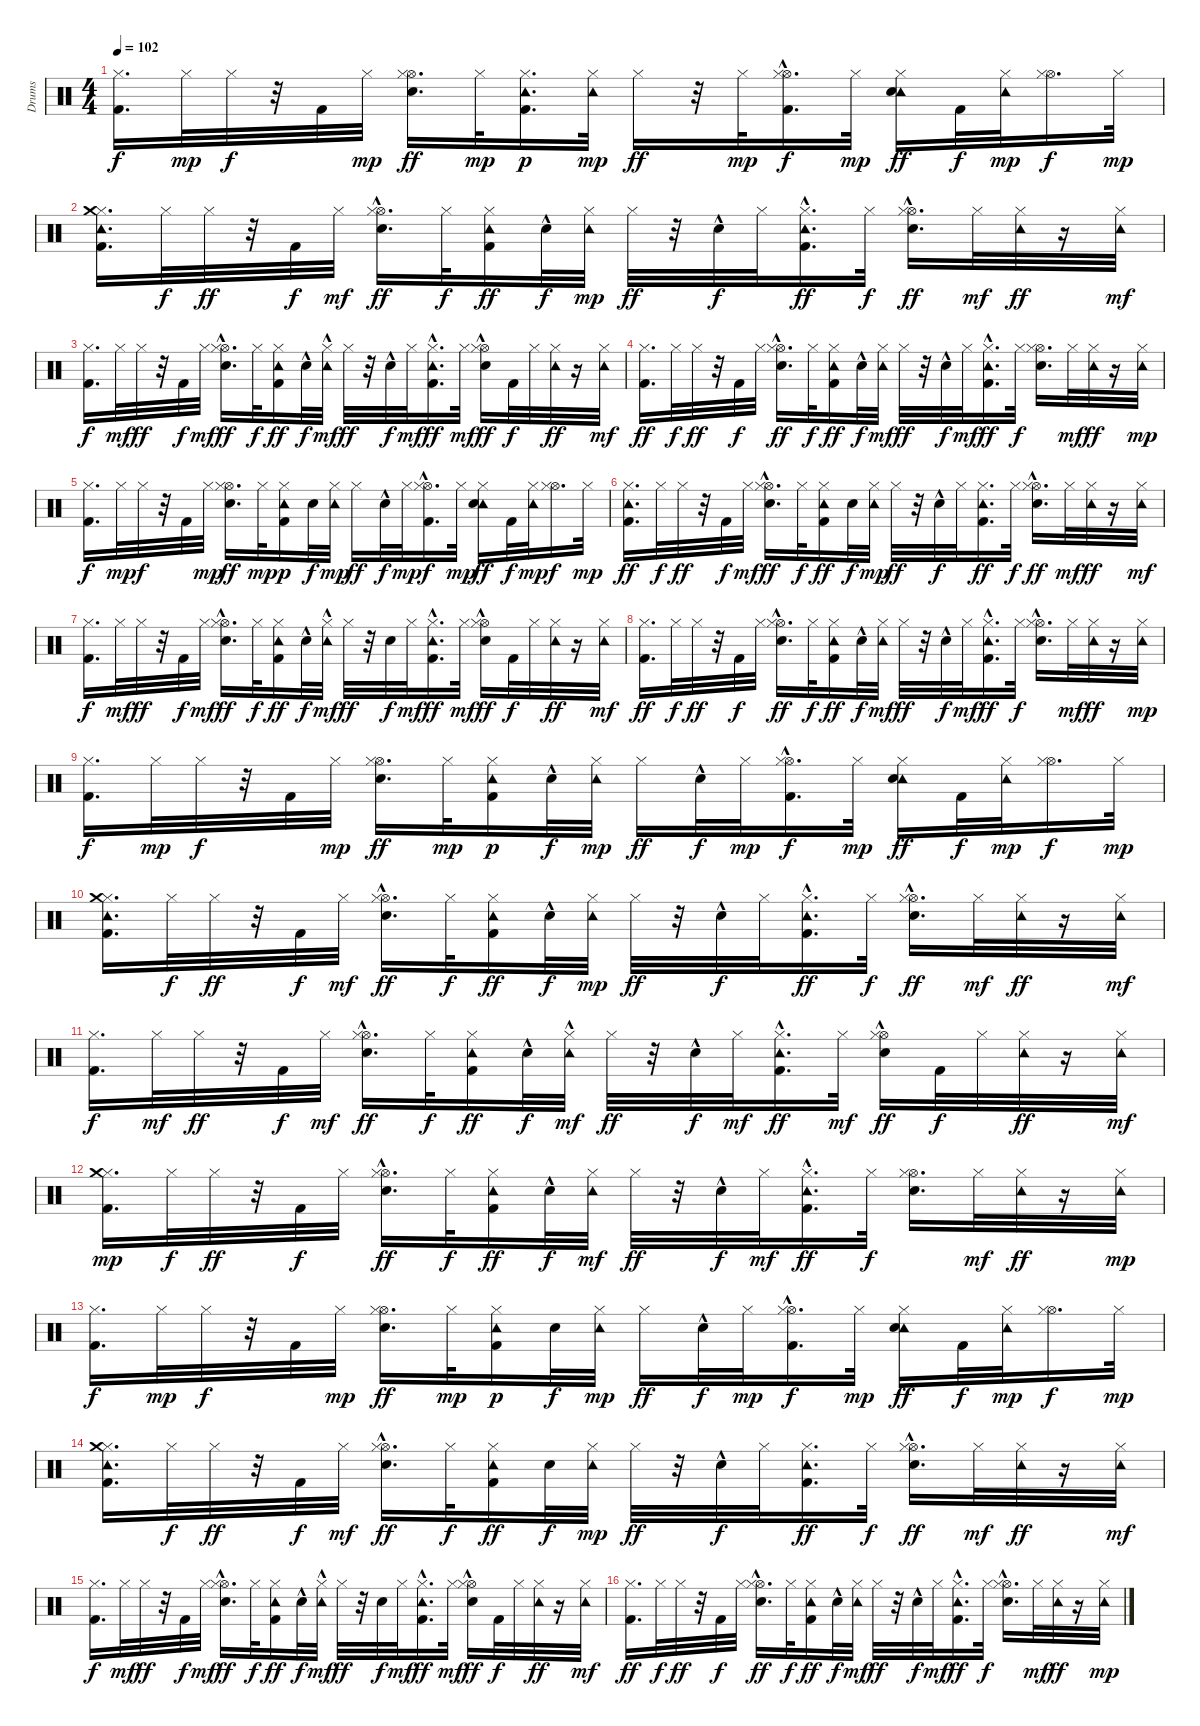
\track ("Drums" "Drums") {instrument percussion}
\staff {score}
\articulation defaults
\ts (4 4)
\tempo 102
\clef neutral
\ks c
("Kick (hit) 2" "Hi-Hat (closed)").16{d dy f} "Hi-Hat (closed)".32{dy mp} "Hi-Hat (closed)".32{dy f} r.32 "Kick (hit) 2".32 "Hi-Hat (closed)".32{dy mp} ("Hi-Hat (open)" "Hi-Hat (closed)" "Electric Snare (hit)").16{d dy ff} "Hi-Hat (closed)".32{dy mp} ("Kick (hit) 2" "Tambourine (hit)" "Hi-Hat (closed)").16{d dy p} ("Tambourine (hit)" "Hi-Hat (closed)").32{dy mp} "Hi-Hat (closed)".16{dy ff} r.32 "Hi-Hat (closed)".32{dy mp} ("Kick (hit) 2"{hac} "Hi-Hat (open)"{hac} "Hi-Hat (closed)").16{d dy f} "Hi-Hat (closed)".32{dy mp} ("Tambourine (hit)" "Hi-Hat (closed)" "Electric Snare (hit)").16{dy ff} "Kick (hit) 2".32{dy f} ("Tambourine (hit)" "Hi-Hat (closed)").32{dy mp} ("Hi-Hat (open)" "Hi-Hat (closed)").16{d dy f} "Hi-Hat (closed)".32{dy mp} |
("Kick (hit) 2" "Tambourine (hit)" "Hi-Hat (closed)" "Crash medium (hit)").16{d} "Hi-Hat (closed)".32{dy f} "Hi-Hat (closed)".32{dy ff} r.32 "Kick (hit) 2".32{dy f} "Hi-Hat (closed)".32{dy mf} ("Hi-Hat (open)"{hac} "Hi-Hat (closed)" "Electric Snare (hit)").16{d dy ff} "Hi-Hat (closed)".32{dy f} ("Kick (hit) 2" "Tambourine (hit)" "Hi-Hat (closed)").16{dy ff} "Snare (hit) 2"{hac}.32{dy f} ("Tambourine (hit)" "Hi-Hat (closed)").32{dy mp} "Hi-Hat (closed)".32{dy ff} r.32 "Snare (hit) 2"{hac}.32{dy f} "Hi-Hat (closed)".32 ("Kick (hit) 2"{hac} "Tambourine (hit)" "Hi-Hat (closed)").16{d dy ff} "Hi-Hat (closed)".32{dy f} ("Hi-Hat (open)"{hac} "Hi-Hat (closed)" "Electric Snare (hit)"{hac}).16{d dy ff} "Hi-Hat (closed)".32{dy mf} ("Tambourine (hit)" "Hi-Hat (closed)").32{dy ff} r.16 ("Tambourine (hit)" "Hi-Hat (closed)").32{dy mf} |
("Kick (hit) 2" "Hi-Hat (closed)").16{d dy f} "Hi-Hat (closed)".32{dy mf} "Hi-Hat (closed)".32{dy ff} r.32 "Kick (hit) 2".32{dy f} "Hi-Hat (closed)".32{dy mf} ("Hi-Hat (open)"{hac} "Hi-Hat (closed)" "Electric Snare (hit)").16{d dy ff} "Hi-Hat (closed)".32{dy f} ("Kick (hit) 2" "Tambourine (hit)" "Hi-Hat (closed)").16{dy ff} "Snare (hit) 2"{hac}.32{dy f} ("Tambourine (hit)"{hac} "Hi-Hat (closed)").32{dy mf} "Hi-Hat (closed)".32{dy ff} r.32 "Snare (hit) 2"{hac}.32{dy f} "Hi-Hat (closed)".32{dy mf} ("Kick (hit) 2"{hac} "Tambourine (hit)" "Hi-Hat (closed)").16{d dy ff} "Hi-Hat (closed)".32{dy mf} ("Hi-Hat (open)"{hac} "Hi-Hat (closed)" "Electric Snare (hit)").16{dy ff} "Kick (hit) 2".32{dy f} "Hi-Hat (closed)".32 ("Tambourine (hit)" "Hi-Hat (closed)").32{dy ff} r.16 ("Tambourine (hit)" "Hi-Hat (closed)").32{dy mf} |
("Kick (hit) 2" "Hi-Hat (closed)").16{d dy ff} "Hi-Hat (closed)".32{dy f} "Hi-Hat (closed)".32{dy ff} r.32 "Kick (hit) 2".32{dy f} "Hi-Hat (closed)".32 ("Hi-Hat (open)"{hac} "Hi-Hat (closed)" "Electric Snare (hit)").16{d dy ff} "Hi-Hat (closed)".32{dy f} ("Kick (hit) 2" "Tambourine (hit)" "Hi-Hat (closed)").16{dy ff} "Snare (hit) 2"{hac}.32{dy f} ("Tambourine (hit)" "Hi-Hat (closed)").32{dy mf} "Hi-Hat (closed)".32{dy ff} r.32 "Snare (hit) 2"{hac}.32{dy f} "Hi-Hat (closed)".32{dy mf} ("Kick (hit) 2"{hac} "Tambourine (hit)" "Hi-Hat (closed)").16{d dy ff} "Hi-Hat (closed)".32{dy f} ("Hi-Hat (open)" "Hi-Hat (closed)" "Electric Snare (hit)").16{d} "Hi-Hat (closed)".32{dy mf} ("Tambourine (hit)" "Hi-Hat (closed)").32{dy ff} r.16 ("Tambourine (hit)" "Hi-Hat (closed)").32{dy mp} |
("Kick (hit) 2" "Hi-Hat (closed)").16{d dy f} "Hi-Hat (closed)".32{dy mp} "Hi-Hat (closed)".32{dy f} r.32 "Kick (hit) 2".32 "Hi-Hat (closed)".32{dy mp} ("Hi-Hat (open)" "Hi-Hat (closed)" "Electric Snare (hit)").16{d dy ff} "Hi-Hat (closed)".32{dy mp} ("Kick (hit) 2" "Tambourine (hit)" "Hi-Hat (closed)").16{dy p} "Snare (hit) 2".32{dy f} ("Tambourine (hit)" "Hi-Hat (closed)").32{dy mp} "Hi-Hat (closed)".16{dy ff} "Snare (hit) 2"{hac}.32{dy f} "Hi-Hat (closed)".32{dy mp} ("Kick (hit) 2"{hac} "Hi-Hat (open)"{hac} "Hi-Hat (closed)").16{d dy f} "Hi-Hat (closed)".32{dy mp} ("Tambourine (hit)" "Hi-Hat (closed)" "Electric Snare (hit)").16{dy ff} "Kick (hit) 2".32{dy f} ("Tambourine (hit)" "Hi-Hat (closed)").32{dy mp} ("Hi-Hat (open)" "Hi-Hat (closed)").16{d dy f} "Hi-Hat (closed)".32{dy mp} |
("Kick (hit) 2" "Tambourine (hit)" "Hi-Hat (closed)").16{d dy ff} "Hi-Hat (closed)".32{dy f} "Hi-Hat (closed)".32{dy ff} r.32 "Kick (hit) 2".32{dy f} "Hi-Hat (closed)".32{dy mf} ("Hi-Hat (open)"{hac} "Electric Snare (hit)" "Hi-Hat (closed)").16{d dy ff} "Hi-Hat (closed)".32{dy f} ("Kick (hit) 2" "Tambourine (hit)" "Hi-Hat (closed)").16{dy ff} "Snare (hit) 2".32{dy f} ("Tambourine (hit)" "Hi-Hat (closed)").32{dy mp} "Hi-Hat (closed)".32{dy ff} r.32 "Snare (hit) 2"{hac}.32{dy f} "Hi-Hat (closed)".32 ("Kick (hit) 2" "Tambourine (hit)" "Hi-Hat (closed)").16{d dy ff} "Hi-Hat (closed)".32{dy f} ("Hi-Hat (open)"{hac} "Electric Snare (hit)"{hac} "Hi-Hat (closed)").16{d dy ff} "Hi-Hat (closed)".32{dy mf} ("Tambourine (hit)" "Hi-Hat (closed)").32{dy ff} r.16 ("Tambourine (hit)" "Hi-Hat (closed)").32{dy mf} |
("Kick (hit) 2" "Hi-Hat (closed)").16{d dy f} "Hi-Hat (closed)".32{dy mf} "Hi-Hat (closed)".32{dy ff} r.32 "Kick (hit) 2".32{dy f} "Hi-Hat (closed)".32{dy mf} ("Hi-Hat (open)"{hac} "Electric Snare (hit)" "Hi-Hat (closed)").16{d dy ff} "Hi-Hat (closed)".32{dy f} ("Kick (hit) 2" "Tambourine (hit)" "Hi-Hat (closed)").16{dy ff} "Snare (hit) 2"{hac}.32{dy f} ("Tambourine (hit)"{hac} "Hi-Hat (closed)").32{dy mf} "Hi-Hat (closed)".32{dy ff} r.32 "Snare (hit) 2".32{dy f} "Hi-Hat (closed)".32{dy mf} ("Kick (hit) 2"{hac} "Tambourine (hit)" "Hi-Hat (closed)").16{d dy ff} "Hi-Hat (closed)".32{dy mf} ("Hi-Hat (open)"{hac} "Electric Snare (hit)" "Hi-Hat (closed)").16{dy ff} "Kick (hit) 2".32{dy f} "Hi-Hat (closed)".32 ("Tambourine (hit)" "Hi-Hat (closed)").32{dy ff} r.16 ("Tambourine (hit)" "Hi-Hat (closed)").32{dy mf} |
("Kick (hit) 2" "Hi-Hat (closed)").16{d dy ff} "Hi-Hat (closed)".32{dy f} "Hi-Hat (closed)".32{dy ff} r.32 "Kick (hit) 2".32{dy f} "Hi-Hat (closed)".32 ("Hi-Hat (open)"{hac} "Electric Snare (hit)" "Hi-Hat (closed)").16{d dy ff} "Hi-Hat (closed)".32{dy f} ("Kick (hit) 2" "Tambourine (hit)" "Hi-Hat (closed)").16{dy ff} "Snare (hit) 2"{hac}.32{dy f} ("Tambourine (hit)" "Hi-Hat (closed)").32{dy mf} "Hi-Hat (closed)".32{dy ff} r.32 "Snare (hit) 2"{hac}.32{dy f} "Hi-Hat (closed)".32{dy mf} ("Kick (hit) 2"{hac} "Tambourine (hit)" "Hi-Hat (closed)").16{d dy ff} "Hi-Hat (closed)".32{dy f} ("Hi-Hat (open)" "Electric Snare (hit)"{hac} "Hi-Hat (closed)").16{d} "Hi-Hat (closed)".32{dy mf} ("Tambourine (hit)" "Hi-Hat (closed)").32{dy ff} r.16 ("Tambourine (hit)" "Hi-Hat (closed)").32{dy mp} |
("Kick (hit) 2" "Hi-Hat (closed)").16{d dy f} "Hi-Hat (closed)".32{dy mp} "Hi-Hat (closed)".32{dy f} r.32 "Kick (hit) 2".32 "Hi-Hat (closed)".32{dy mp} ("Hi-Hat (open)" "Electric Snare (hit)" "Hi-Hat (closed)").16{d dy ff} "Hi-Hat (closed)".32{dy mp} ("Kick (hit) 2" "Tambourine (hit)" "Hi-Hat (closed)").16{dy p} "Snare (hit) 2"{hac}.32{dy f} ("Tambourine (hit)" "Hi-Hat (closed)").32{dy mp} "Hi-Hat (closed)".16{dy ff} "Snare (hit) 2"{hac}.32{dy f} "Hi-Hat (closed)".32{dy mp} ("Kick (hit) 2"{hac} "Hi-Hat (open)"{hac} "Hi-Hat (closed)").16{d dy f} "Hi-Hat (closed)".32{dy mp} ("Tambourine (hit)" "Electric Snare (hit)" "Hi-Hat (closed)").16{dy ff} "Kick (hit) 2".32{dy f} ("Tambourine (hit)" "Hi-Hat (closed)").32{dy mp} ("Hi-Hat (open)" "Hi-Hat (closed)").16{d dy f} "Hi-Hat (closed)".32{dy mp} |
("Kick (hit) 2" "Tambourine (hit)" "Hi-Hat (closed)" "Crash medium (hit)").16{d} "Hi-Hat (closed)".32{dy f} "Hi-Hat (closed)".32{dy ff} r.32 "Kick (hit) 2".32{dy f} "Hi-Hat (closed)".32{dy mf} ("Hi-Hat (open)"{hac} "Hi-Hat (closed)" "Electric Snare (hit)").16{d dy ff} "Hi-Hat (closed)".32{dy f} ("Kick (hit) 2" "Tambourine (hit)" "Hi-Hat (closed)").16{dy ff} "Snare (hit) 2"{hac}.32{dy f} ("Tambourine (hit)" "Hi-Hat (closed)").32{dy mp} "Hi-Hat (closed)".32{dy ff} r.32 "Snare (hit) 2"{hac}.32{dy f} "Hi-Hat (closed)".32 ("Kick (hit) 2"{hac} "Tambourine (hit)" "Hi-Hat (closed)").16{d dy ff} "Hi-Hat (closed)".32{dy f} ("Hi-Hat (open)"{hac} "Hi-Hat (closed)" "Electric Snare (hit)"{hac}).16{d dy ff} "Hi-Hat (closed)".32{dy mf} ("Tambourine (hit)" "Hi-Hat (closed)").32{dy ff} r.16 ("Tambourine (hit)" "Hi-Hat (closed)").32{dy mf} |
("Kick (hit) 2" "Hi-Hat (closed)").16{d dy f} "Hi-Hat (closed)".32{dy mf} "Hi-Hat (closed)".32{dy ff} r.32 "Kick (hit) 2".32{dy f} "Hi-Hat (closed)".32{dy mf} ("Hi-Hat (open)"{hac} "Hi-Hat (closed)" "Electric Snare (hit)").16{d dy ff} "Hi-Hat (closed)".32{dy f} ("Kick (hit) 2" "Tambourine (hit)" "Hi-Hat (closed)").16{dy ff} "Snare (hit) 2"{hac}.32{dy f} ("Tambourine (hit)"{hac} "Hi-Hat (closed)").32{dy mf} "Hi-Hat (closed)".32{dy ff} r.32 "Snare (hit) 2"{hac}.32{dy f} "Hi-Hat (closed)".32{dy mf} ("Kick (hit) 2"{hac} "Tambourine (hit)" "Hi-Hat (closed)").16{d dy ff} "Hi-Hat (closed)".32{dy mf} ("Hi-Hat (open)"{hac} "Hi-Hat (closed)" "Electric Snare (hit)").16{dy ff} "Kick (hit) 2".32{dy f} "Hi-Hat (closed)".32 ("Tambourine (hit)" "Hi-Hat (closed)").32{dy ff} r.16 ("Tambourine (hit)" "Hi-Hat (closed)").32{dy mf} |
("Kick (hit) 2" "Hi-Hat (closed)" "Crash medium (hit)").16{d dy mp} "Hi-Hat (closed)".32{dy f} "Hi-Hat (closed)".32{dy ff} r.32 "Kick (hit) 2".32{dy f} "Hi-Hat (closed)".32 ("Hi-Hat (open)"{hac} "Hi-Hat (closed)" "Electric Snare (hit)").16{d dy ff} "Hi-Hat (closed)".32{dy f} ("Kick (hit) 2" "Tambourine (hit)" "Hi-Hat (closed)").16{dy ff} "Snare (hit) 2"{hac}.32{dy f} ("Tambourine (hit)" "Hi-Hat (closed)").32{dy mf} "Hi-Hat (closed)".32{dy ff} r.32 "Snare (hit) 2"{hac}.32{dy f} "Hi-Hat (closed)".32{dy mf} ("Kick (hit) 2"{hac} "Tambourine (hit)" "Hi-Hat (closed)").16{d dy ff} "Hi-Hat (closed)".32{dy f} ("Hi-Hat (open)" "Hi-Hat (closed)" "Electric Snare (hit)").16{d} "Hi-Hat (closed)".32{dy mf} ("Tambourine (hit)" "Hi-Hat (closed)").32{dy ff} r.16 ("Tambourine (hit)" "Hi-Hat (closed)").32{dy mp} |
("Kick (hit) 2" "Hi-Hat (closed)").16{d dy f} "Hi-Hat (closed)".32{dy mp} "Hi-Hat (closed)".32{dy f} r.32 "Kick (hit) 2".32 "Hi-Hat (closed)".32{dy mp} ("Hi-Hat (open)" "Hi-Hat (closed)" "Electric Snare (hit)").16{d dy ff} "Hi-Hat (closed)".32{dy mp} ("Kick (hit) 2" "Tambourine (hit)" "Hi-Hat (closed)").16{dy p} "Snare (hit) 2".32{dy f} ("Tambourine (hit)" "Hi-Hat (closed)").32{dy mp} "Hi-Hat (closed)".16{dy ff} "Snare (hit) 2"{hac}.32{dy f} "Hi-Hat (closed)".32{dy mp} ("Kick (hit) 2"{hac} "Hi-Hat (open)"{hac} "Hi-Hat (closed)").16{d dy f} "Hi-Hat (closed)".32{dy mp} ("Tambourine (hit)" "Hi-Hat (closed)" "Electric Snare (hit)").16{dy ff} "Kick (hit) 2".32{dy f} ("Tambourine (hit)" "Hi-Hat (closed)").32{dy mp} ("Hi-Hat (open)" "Hi-Hat (closed)").16{d dy f} "Hi-Hat (closed)".32{dy mp} |
("Kick (hit) 2" "Tambourine (hit)" "Hi-Hat (closed)" "Crash medium (hit)").16{d} "Hi-Hat (closed)".32{dy f} "Hi-Hat (closed)".32{dy ff} r.32 "Kick (hit) 2".32{dy f} "Hi-Hat (closed)".32{dy mf} ("Hi-Hat (open)"{hac} "Hi-Hat (closed)" "Electric Snare (hit)").16{d dy ff} "Hi-Hat (closed)".32{dy f} ("Kick (hit) 2" "Tambourine (hit)" "Hi-Hat (closed)").16{dy ff} "Snare (hit) 2".32{dy f} ("Tambourine (hit)" "Hi-Hat (closed)").32{dy mp} "Hi-Hat (closed)".32{dy ff} r.32 "Snare (hit) 2"{hac}.32{dy f} "Hi-Hat (closed)".32 ("Kick (hit) 2" "Tambourine (hit)" "Hi-Hat (closed)").16{d dy ff} "Hi-Hat (closed)".32{dy f} ("Hi-Hat (open)"{hac} "Hi-Hat (closed)" "Electric Snare (hit)"{hac}).16{d dy ff} "Hi-Hat (closed)".32{dy mf} ("Tambourine (hit)" "Hi-Hat (closed)").32{dy ff} r.16 ("Tambourine (hit)" "Hi-Hat (closed)").32{dy mf} |
("Kick (hit) 2" "Hi-Hat (closed)").16{d dy f} "Hi-Hat (closed)".32{dy mf} "Hi-Hat (closed)".32{dy ff} r.32 "Kick (hit) 2".32{dy f} "Hi-Hat (closed)".32{dy mf} ("Hi-Hat (open)"{hac} "Hi-Hat (closed)" "Electric Snare (hit)").16{d dy ff} "Hi-Hat (closed)".32{dy f} ("Kick (hit) 2" "Tambourine (hit)" "Hi-Hat (closed)").16{dy ff} "Snare (hit) 2"{hac}.32{dy f} ("Tambourine (hit)"{hac} "Hi-Hat (closed)").32{dy mf} "Hi-Hat (closed)".32{dy ff} r.32 "Snare (hit) 2".32{dy f} "Hi-Hat (closed)".32{dy mf} ("Kick (hit) 2"{hac} "Tambourine (hit)" "Hi-Hat (closed)").16{d dy ff} "Hi-Hat (closed)".32{dy mf} ("Hi-Hat (open)"{hac} "Hi-Hat (closed)" "Electric Snare (hit)").16{dy ff} "Kick (hit) 2".32{dy f} "Hi-Hat (closed)".32 ("Tambourine (hit)" "Hi-Hat (closed)").32{dy ff} r.16 ("Tambourine (hit)" "Hi-Hat (closed)").32{dy mf} |
("Kick (hit) 2" "Hi-Hat (closed)").16{d dy ff} "Hi-Hat (closed)".32{dy f} "Hi-Hat (closed)".32{dy ff} r.32 "Kick (hit) 2".32{dy f} "Hi-Hat (closed)".32 ("Hi-Hat (open)"{hac} "Hi-Hat (closed)" "Electric Snare (hit)").16{d dy ff} "Hi-Hat (closed)".32{dy f} ("Kick (hit) 2" "Tambourine (hit)" "Hi-Hat (closed)").16{dy ff} "Snare (hit) 2"{hac}.32{dy f} ("Tambourine (hit)" "Hi-Hat (closed)").32{dy mf} "Hi-Hat (closed)".32{dy ff} r.32 "Snare (hit) 2"{hac}.32{dy f} "Hi-Hat (closed)".32{dy mf} ("Kick (hit) 2"{hac} "Tambourine (hit)" "Hi-Hat (closed)").16{d dy ff} "Hi-Hat (closed)".32{dy f} ("Hi-Hat (open)" "Hi-Hat (closed)" "Electric Snare (hit)"{hac}).16{d} "Hi-Hat (closed)".32{dy mf} ("Tambourine (hit)" "Hi-Hat (closed)").32{dy ff} r.16 ("Tambourine (hit)" "Hi-Hat (closed)").32{dy mp}
